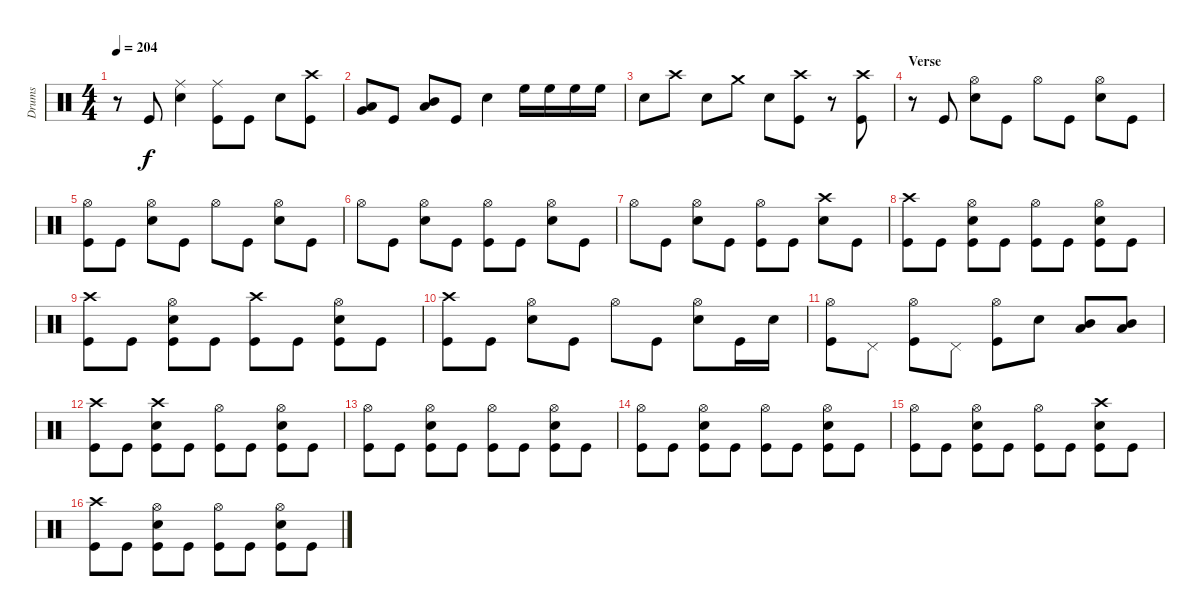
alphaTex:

\track ("Drums" "Drums") {instrument percussion}
\staff {score}
\articulation defaults
\ts (4 4)
\tempo 204
\clef neutral
\ks c
r.8{dy f} "Kick (hit)".8 ("Ride (middle)" "Snare (hit) 2").4 ("Ride (middle)" "Kick (hit)").8 "Kick (hit)".8 "Snare (hit) 2".8 ("Crash high (hit)" "Kick (hit)").8 |
("Low Tom (hit)" "Very Low Tom (hit)").8 "Kick (hit)".8 ("Mid Tom (hit)" "Low Tom (hit)").8 "Kick (hit)".8 "Snare (hit) 2".4 "High Floor Tom (hit)".16 "High Floor Tom (hit)".16 "High Floor Tom (hit)".16 "High Floor Tom (hit)".16 |
"Snare (hit) 2".8 "Crash high (hit)".8 "Snare (hit) 2".8 "Crash medium (hit)".8 "Snare (hit) 2".8 ("Crash high (hit)" "Kick (hit)").8 r.8 ("Crash high (hit)" "Kick (hit)").8 |
\section ("" "Verse")
r.8 "Kick (hit)".8 ("Hi-Hat (open)" "Snare (hit) 2").8 "Kick (hit)".8 "Hi-Hat (open)".8 "Kick (hit)".8 ("Hi-Hat (open)" "Snare (hit) 2").8 "Kick (hit)".8 |
("Hi-Hat (open)" "Kick (hit)").8 "Kick (hit)".8 ("Hi-Hat (open)" "Snare (hit) 2").8 "Kick (hit)".8 "Hi-Hat (open)".8 "Kick (hit)".8 ("Hi-Hat (open)" "Snare (hit) 2").8 "Kick (hit)".8 |
"Hi-Hat (open)".8 "Kick (hit)".8 ("Hi-Hat (open)" "Snare (hit) 2").8 "Kick (hit)".8 ("Hi-Hat (open)" "Kick (hit)").8 "Kick (hit)".8 ("Hi-Hat (open)" "Snare (hit) 2").8 "Kick (hit)".8 |
"Hi-Hat (open)".8 "Kick (hit)".8 ("Hi-Hat (open)" "Snare (hit) 2").8 "Kick (hit)".8 ("Hi-Hat (open)" "Kick (hit)").8 "Kick (hit)".8 ("Crash high (hit)" "Snare (hit) 2").8 "Kick (hit)".8 |
("Crash high (hit)" "Kick (hit)").8 "Kick (hit)".8 ("Hi-Hat (open)" "Snare (hit) 2" "Kick (hit)").8 "Kick (hit)".8 ("Hi-Hat (open)" "Kick (hit)").8 "Kick (hit)".8 ("Hi-Hat (open)" "Snare (hit) 2" "Kick (hit)").8 "Kick (hit)".8 |
("Crash high (hit)" "Kick (hit)").8 "Kick (hit)".8 ("Hi-Hat (open)" "Snare (hit) 2" "Kick (hit)").8 "Kick (hit)".8 ("Crash high (hit)" "Kick (hit)").8 "Kick (hit)".8 ("Hi-Hat (open)" "Snare (hit) 2" "Kick (hit)").8 "Kick (hit)".8 |
("Crash high (hit)" "Kick (hit)").8 "Kick (hit)".8 ("Hi-Hat (open)" "Snare (hit) 2").8 "Kick (hit)".8 "Hi-Hat (open)".8 "Kick (hit)".8 ("Hi-Hat (open)" "Snare (hit) 2").8 "Kick (hit)".16 "Snare (hit) 2".16 |
("Hi-Hat (open)" "Kick (hit)").8 "Pedal Hi-Hat (hit)".8 ("Hi-Hat (open)" "Kick (hit)").8 "Pedal Hi-Hat (hit)".8 ("Hi-Hat (open)" "Kick (hit)").8 "Snare (hit) 2".8 ("Mid Tom (hit)" "Low Tom (hit)").8 ("Mid Tom (hit)" "Low Tom (hit)").8 |
("Crash high (hit)" "Kick (hit)").8 "Kick (hit)".8 ("Crash high (hit)" "Snare (hit) 2" "Kick (hit)").8 "Kick (hit)".8 ("Hi-Hat (open)" "Kick (hit)").8 "Kick (hit)".8 ("Hi-Hat (open)" "Snare (hit) 2" "Kick (hit)").8 "Kick (hit)".8 |
("Hi-Hat (open)" "Kick (hit)").8 "Kick (hit)".8 ("Hi-Hat (open)" "Snare (hit) 2" "Kick (hit)").8 "Kick (hit)".8 ("Hi-Hat (open)" "Kick (hit)").8 "Kick (hit)".8 ("Hi-Hat (open)" "Snare (hit) 2" "Kick (hit)").8 "Kick (hit)".8 |
("Hi-Hat (open)" "Kick (hit)").8 "Kick (hit)".8 ("Hi-Hat (open)" "Snare (hit) 2" "Kick (hit)").8 "Kick (hit)".8 ("Hi-Hat (open)" "Kick (hit)").8 "Kick (hit)".8 ("Hi-Hat (open)" "Snare (hit) 2" "Kick (hit)").8 "Kick (hit)".8 |
("Hi-Hat (open)" "Kick (hit)").8 "Kick (hit)".8 ("Hi-Hat (open)" "Snare (hit) 2" "Kick (hit)").8 "Kick (hit)".8 ("Hi-Hat (open)" "Kick (hit)").8 "Kick (hit)".8 ("Crash high (hit)" "Snare (hit) 2" "Kick (hit)").8 "Kick (hit)".8 |
("Crash high (hit)" "Kick (hit)").8 "Kick (hit)".8 ("Hi-Hat (open)" "Snare (hit) 2" "Kick (hit)").8 "Kick (hit)".8 ("Hi-Hat (open)" "Kick (hit)").8 "Kick (hit)".8 ("Hi-Hat (open)" "Snare (hit) 2" "Kick (hit)").8 "Kick (hit)".8
